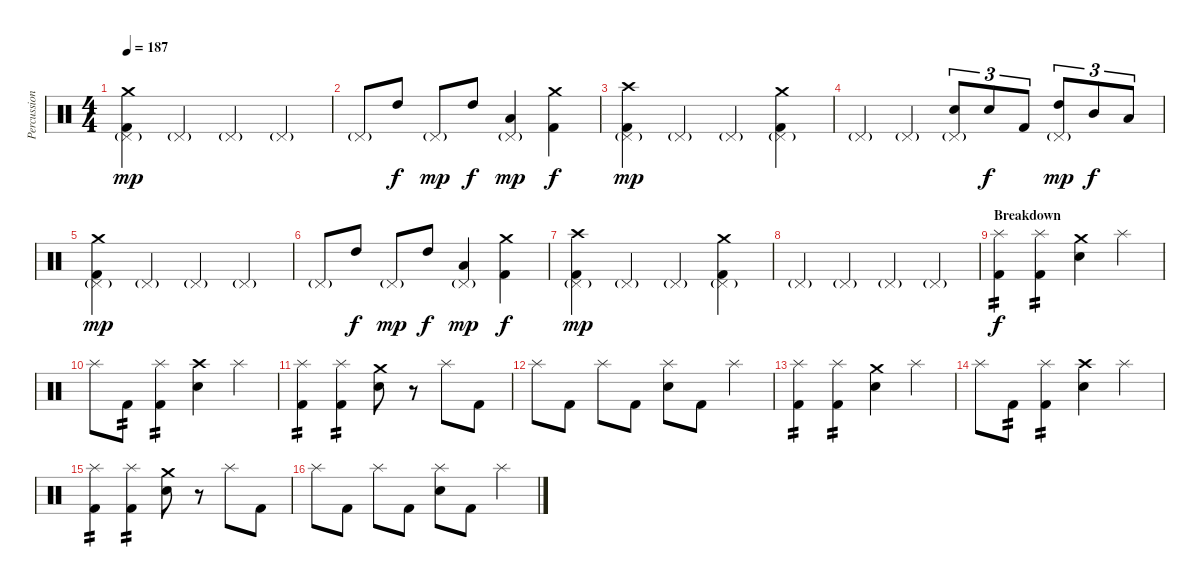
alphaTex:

\track ("Percussion" "Percussion") {instrument percussion}
\staff {score}
\articulation defaults
\ts (4 4)
\tempo 187
\clef neutral
\ks c
("Crash medium (hit)" "Pedal Hi-Hat (hit)"{g} "Kick (hit) 2").4{dy mp} "Pedal Hi-Hat (hit)"{g}.4 "Pedal Hi-Hat (hit)"{g}.4 "Pedal Hi-Hat (hit)"{g}.4 |
"Pedal Hi-Hat (hit)"{g}.8 "High Tom (hit)".8{dy f} "Pedal Hi-Hat (hit)"{g}.8{dy mp} "High Tom (hit)".8{dy f} ("Pedal Hi-Hat (hit)"{g} "Low Tom (hit)").4{dy mp} ("Crash medium (hit)" "Kick (hit) 2").4{dy f} |
("Crash high (hit)" "Pedal Hi-Hat (hit)"{g} "Kick (hit) 2").4{dy mp} "Pedal Hi-Hat (hit)"{g}.4 "Pedal Hi-Hat (hit)"{g}.4 ("Crash medium (hit)" "Pedal Hi-Hat (hit)"{g} "Kick (hit) 2").4 |
"Pedal Hi-Hat (hit)"{g}.4 "Pedal Hi-Hat (hit)"{g}.4 ("Pedal Hi-Hat (hit)"{g} "Electric Snare (hit)").8{tu (3 2)} "Electric Snare (hit)".8{tu (3 2) dy f} "Kick (hit) 2".8{tu (3 2)} ("Pedal Hi-Hat (hit)"{g} "High Tom (hit)").8{tu (3 2) dy mp} "Mid Tom (hit)".8{tu (3 2) dy f} "Low Tom (hit)".8{tu (3 2)} |
("Crash medium (hit)" "Pedal Hi-Hat (hit)"{g} "Kick (hit) 2").4{dy mp} "Pedal Hi-Hat (hit)"{g}.4 "Pedal Hi-Hat (hit)"{g}.4 "Pedal Hi-Hat (hit)"{g}.4 |
"Pedal Hi-Hat (hit)"{g}.8 "High Tom (hit)".8{dy f} "Pedal Hi-Hat (hit)"{g}.8{dy mp} "High Tom (hit)".8{dy f} ("Pedal Hi-Hat (hit)"{g} "Low Tom (hit)").4{dy mp} ("Crash medium (hit)" "Kick (hit) 2").4{dy f} |
("Crash high (hit)" "Pedal Hi-Hat (hit)"{g} "Kick (hit) 2").4{dy mp} "Pedal Hi-Hat (hit)"{g}.4 "Pedal Hi-Hat (hit)"{g}.4 ("Crash medium (hit)" "Pedal Hi-Hat (hit)"{g} "Kick (hit) 2").4 |
"Pedal Hi-Hat (hit)"{g}.4 "Pedal Hi-Hat (hit)"{g}.4 "Pedal Hi-Hat (hit)"{g}.4 "Pedal Hi-Hat (hit)"{g}.4 |
\section ("" "Breakdown")
("Splash (hit)" "Kick (hit) 2").4{tp 2 dy f} ("Splash (hit)" "Kick (hit) 2").4{tp 2} ("Crash medium (hit)" "Electric Snare (hit)").4 "Splash (hit)".4 |
"Splash (hit)".8 "Kick (hit) 2".8{tp 2} ("Splash (hit)" "Kick (hit) 2").4{tp 2} ("Crash high (hit)" "Electric Snare (hit)").4 "Splash (hit)".4 |
("Splash (hit)" "Kick (hit) 2").4{tp 2} ("Splash (hit)" "Kick (hit) 2").4{tp 2} ("Crash medium (hit)" "Electric Snare (hit)").8 r.8 "Splash (hit)".8 "Kick (hit) 2".8 |
"Splash (hit)".8 "Kick (hit) 2".8 "Splash (hit)".8 "Kick (hit) 2".8 ("Splash (hit)" "Electric Snare (hit)").8 "Kick (hit) 2".8 "Splash (hit)".4 |
("Splash (hit)" "Kick (hit) 2").4{tp 2} ("Splash (hit)" "Kick (hit) 2").4{tp 2} ("Crash medium (hit)" "Electric Snare (hit)").4 "Splash (hit)".4 |
"Splash (hit)".8 "Kick (hit) 2".8{tp 2} ("Splash (hit)" "Kick (hit) 2").4{tp 2} ("Crash high (hit)" "Electric Snare (hit)").4 "Splash (hit)".4 |
("Splash (hit)" "Kick (hit) 2").4{tp 2} ("Splash (hit)" "Kick (hit) 2").4{tp 2} ("Crash medium (hit)" "Electric Snare (hit)").8 r.8 "Splash (hit)".8 "Kick (hit) 2".8 |
"Splash (hit)".8 "Kick (hit) 2".8 "Splash (hit)".8 "Kick (hit) 2".8 ("Splash (hit)" "Electric Snare (hit)").8 "Kick (hit) 2".8 "Splash (hit)".4
